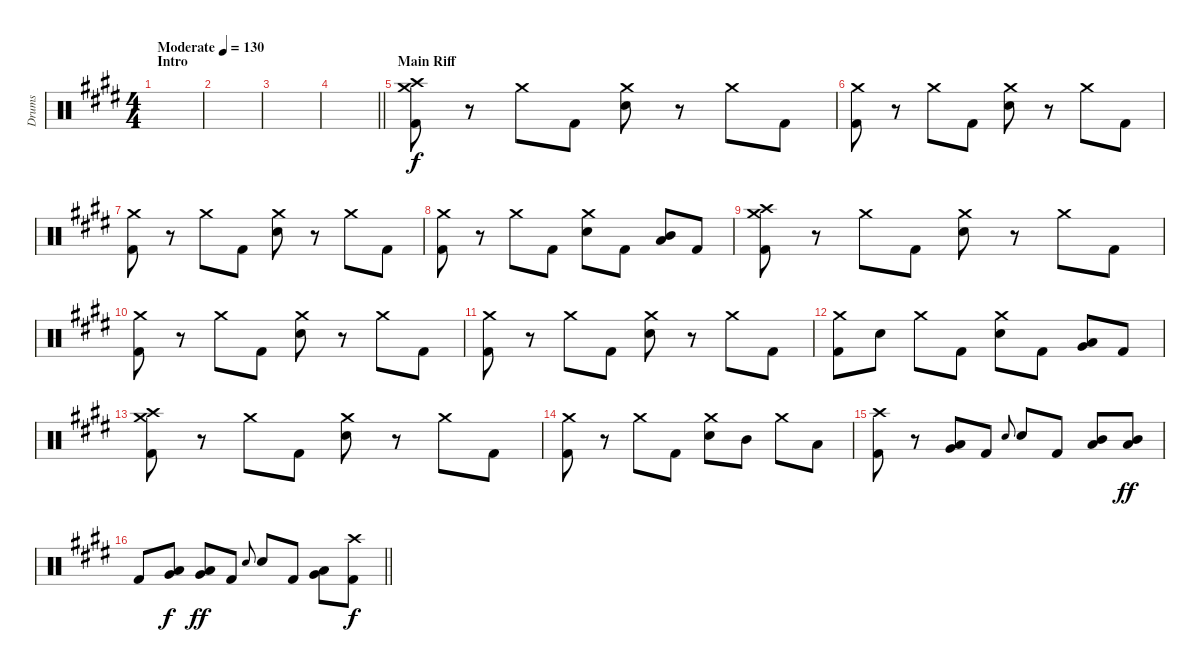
\track ("Drums" "Drums") {instrument percussion}
\staff {score}
\articulation defaults
\ts (4 4)
\section ("" "Intro")
\tempo (130 "Moderate")
\clef neutral
\ks c#minor
|
|
|
\barLineRight lightlight
|
\section ("" "Main Riff")
("Crash medium (hit)" "Crash high (hit)" "Kick (hit) 2").8 r.8 "Crash medium (hit)".8 "Kick (hit) 2".8 ("Crash medium (hit)" "Electric Snare (hit)").8 r.8 "Crash medium (hit)".8 "Kick (hit) 2".8 |
("Crash medium (hit)" "Kick (hit) 2").8 r.8 "Crash medium (hit)".8 "Kick (hit) 2".8 ("Crash medium (hit)" "Electric Snare (hit)").8 r.8 "Crash medium (hit)".8 "Kick (hit) 2".8 |
("Crash medium (hit)" "Kick (hit) 2").8 r.8 "Crash medium (hit)".8 "Kick (hit) 2".8 ("Crash medium (hit)" "Electric Snare (hit)").8 r.8 "Crash medium (hit)".8 "Kick (hit) 2".8 |
("Crash medium (hit)" "Kick (hit) 2").8 r.8 "Crash medium (hit)".8 "Kick (hit) 2".8 ("Crash medium (hit)" "Electric Snare (hit)").8 "Kick (hit) 2".8 ("Mid Tom (hit)" "Low Tom (hit)").8 "Kick (hit) 2".8 |
("Crash medium (hit)" "Crash high (hit)" "Kick (hit) 2").8 r.8 "Crash medium (hit)".8 "Kick (hit) 2".8 ("Crash medium (hit)" "Electric Snare (hit)").8 r.8 "Crash medium (hit)".8 "Kick (hit) 2".8 |
("Crash medium (hit)" "Kick (hit) 2").8 r.8 "Crash medium (hit)".8 "Kick (hit) 2".8 ("Crash medium (hit)" "Electric Snare (hit)").8 r.8 "Crash medium (hit)".8 "Kick (hit) 2".8 |
("Crash medium (hit)" "Kick (hit) 2").8 r.8 "Crash medium (hit)".8 "Kick (hit) 2".8 ("Crash medium (hit)" "Electric Snare (hit)").8 r.8 "Crash medium (hit)".8 "Kick (hit) 2".8 |
("Crash medium (hit)" "Kick (hit) 2").8 "Electric Snare (hit)".8 "Crash medium (hit)".8 "Kick (hit) 2".8 ("Crash medium (hit)" "Electric Snare (hit)").8 "Kick (hit) 2".8 ("Very Low Tom (hit)" "Low Floor Tom (hit)").8 "Kick (hit) 2".8 |
("Crash medium (hit)" "Crash high (hit)" "Kick (hit) 2").8 r.8 "Crash medium (hit)".8 "Kick (hit) 2".8 ("Crash medium (hit)" "Electric Snare (hit)").8 r.8 "Crash medium (hit)".8 "Kick (hit) 2".8 |
("Crash medium (hit)" "Kick (hit) 2").8 r.8 "Crash medium (hit)".8 "Kick (hit) 2".8 ("Crash medium (hit)" "Electric Snare (hit)").8 "Mid Tom (hit)".8 "Crash medium (hit)".8 "Low Tom (hit)".8 |
("Crash high (hit)" "Kick (hit) 2").8 r.8 ("Low Tom (hit)" "Very Low Tom (hit)").8 "Kick (hit) 2".8 "Electric Snare (hit)".8{gr onbeat} "Electric Snare (hit)".8 "Kick (hit) 2".8 ("Mid Tom (hit)" "Low Tom (hit)").8{dy f} ("Mid Tom (hit)" "Low Tom (hit)").8{dy ff} |
\barLineRight lightlight "Kick (hit) 2".8
("Very Low Tom (hit)" "Low Floor Tom (hit)").8{dy f} ("Very Low Tom (hit)" "Low Floor Tom (hit)").8{dy ff} "Kick (hit) 2".8 "Electric Snare (hit)".8{gr onbeat} "Electric Snare (hit)".8 "Kick (hit) 2".8 ("Very Low Tom (hit)" "Low Floor Tom (hit)").8 ("Crash high (hit)" "Kick (hit) 2").8{dy f}
